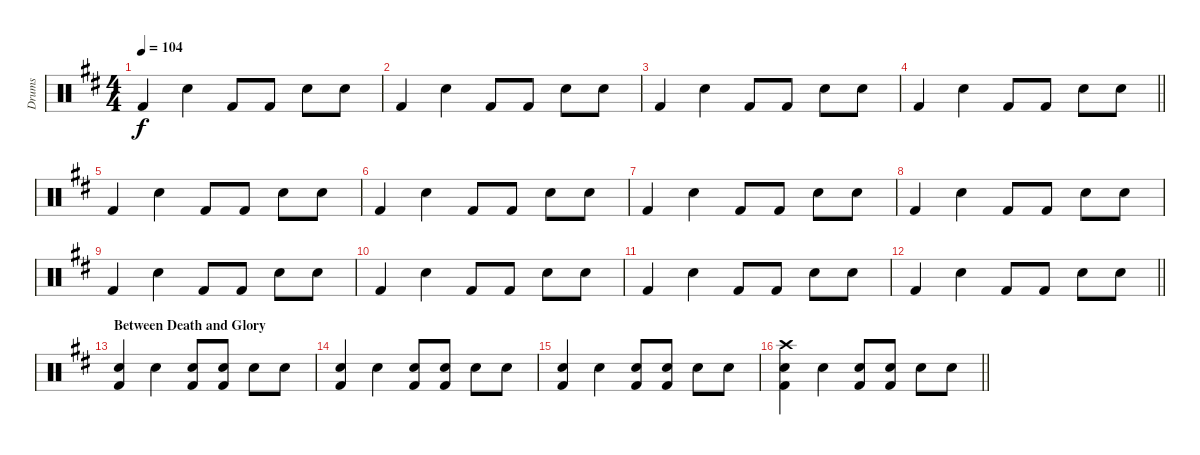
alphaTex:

\track ("Drums" "Drums") {instrument percussion}
\staff {score}
\articulation defaults
\ts (4 4)
\tempo 104
\clef neutral
\ks d "Kick (hit) 2".4{dy f} "Electric Snare (hit)".4 "Kick (hit) 2".8 "Kick (hit) 2".8 "Electric Snare (hit)".8 "Electric Snare (hit)".8
|
"Kick (hit) 2".4 "Electric Snare (hit)".4 "Kick (hit) 2".8 "Kick (hit) 2".8 "Electric Snare (hit)".8 "Electric Snare (hit)".8 |
"Kick (hit) 2".4 "Electric Snare (hit)".4 "Kick (hit) 2".8 "Kick (hit) 2".8 "Electric Snare (hit)".8 "Electric Snare (hit)".8 |
\barLineRight lightlight "Kick (hit) 2".4 "Electric Snare (hit)".4 "Kick (hit) 2".8 "Kick (hit) 2".8 "Electric Snare (hit)".8 "Electric Snare (hit)".8
|
"Kick (hit) 2".4 "Electric Snare (hit)".4 "Kick (hit) 2".8 "Kick (hit) 2".8 "Electric Snare (hit)".8 "Electric Snare (hit)".8 |
"Kick (hit) 2".4 "Electric Snare (hit)".4 "Kick (hit) 2".8 "Kick (hit) 2".8 "Electric Snare (hit)".8 "Electric Snare (hit)".8 |
"Kick (hit) 2".4 "Electric Snare (hit)".4 "Kick (hit) 2".8 "Kick (hit) 2".8 "Electric Snare (hit)".8 "Electric Snare (hit)".8 |
"Kick (hit) 2".4 "Electric Snare (hit)".4 "Kick (hit) 2".8 "Kick (hit) 2".8 "Electric Snare (hit)".8 "Electric Snare (hit)".8 |
"Kick (hit) 2".4 "Electric Snare (hit)".4 "Kick (hit) 2".8 "Kick (hit) 2".8 "Electric Snare (hit)".8 "Electric Snare (hit)".8 |
"Kick (hit) 2".4 "Electric Snare (hit)".4 "Kick (hit) 2".8 "Kick (hit) 2".8 "Electric Snare (hit)".8 "Electric Snare (hit)".8 |
"Kick (hit) 2".4 "Electric Snare (hit)".4 "Kick (hit) 2".8 "Kick (hit) 2".8 "Electric Snare (hit)".8 "Electric Snare (hit)".8 |
\barLineRight lightlight "Kick (hit) 2".4 "Electric Snare (hit)".4 "Kick (hit) 2".8 "Kick (hit) 2".8 "Electric Snare (hit)".8 "Electric Snare (hit)".8
|
\section ("" "Between Death and Glory")
("Electric Snare (hit)" "Kick (hit) 2").4 "Electric Snare (hit)".4 ("Electric Snare (hit)" "Kick (hit) 2").8 ("Electric Snare (hit)" "Kick (hit) 2").8 "Electric Snare (hit)".8 "Electric Snare (hit)".8 |
("Electric Snare (hit)" "Kick (hit) 2").4 "Electric Snare (hit)".4 ("Electric Snare (hit)" "Kick (hit) 2").8 ("Electric Snare (hit)" "Kick (hit) 2").8 "Electric Snare (hit)".8 "Electric Snare (hit)".8 |
("Electric Snare (hit)" "Kick (hit) 2").4 "Electric Snare (hit)".4 ("Electric Snare (hit)" "Kick (hit) 2").8 ("Electric Snare (hit)" "Kick (hit) 2").8 "Electric Snare (hit)".8 "Electric Snare (hit)".8 |
\barLineRight lightlight
("Electric Snare (hit)" "Crash high (hit)" "Kick (hit) 2").4 "Electric Snare (hit)".4 ("Electric Snare (hit)" "Kick (hit) 2").8 ("Electric Snare (hit)" "Kick (hit) 2").8 "Electric Snare (hit)".8 "Electric Snare (hit)".8
